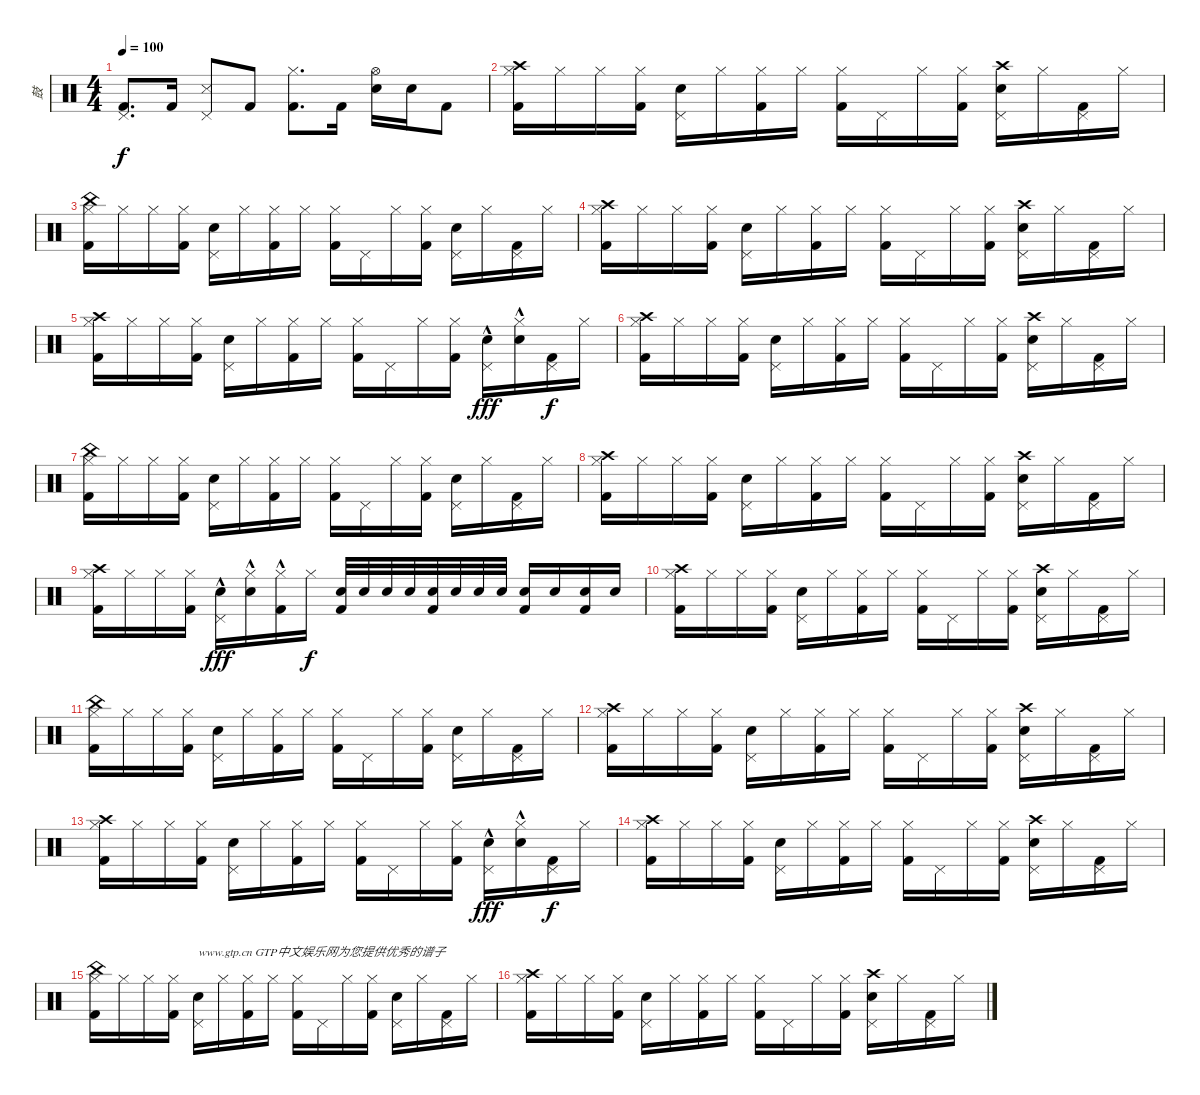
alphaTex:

\track ("鼓" "鼓") {instrument percussion}
\staff {score}
\articulation defaults
\ts (4 4)
\tempo 100
\clef neutral
\ks c
("Pedal Hi-Hat (hit)" "Kick (hit) 2").8{d dy f} "Kick (hit) 2".16 ("Pedal Hi-Hat (hit)" "Metronome (hit)").8 "Kick (hit) 2".8 ("Hi-Hat (closed)" "Kick (hit) 2").8{d} "Kick (hit) 2".16 ("Hi-Hat (open)" "Electric Snare (hit)").16 "Snare (hit) 2".16 "Kick (hit) 2".8 |
("Crash high (hit)" "Hi-Hat (closed)" "Kick (hit) 2").16 "Hi-Hat (closed)".16 "Hi-Hat (closed)".16 ("Hi-Hat (closed)" "Kick (hit) 2").16 ("Pedal Hi-Hat (hit)" "Electric Snare (hit)").16 "Hi-Hat (closed)".16 ("Hi-Hat (closed)" "Kick (hit) 2").16 "Hi-Hat (closed)".16 ("Hi-Hat (closed)" "Kick (hit) 2").16 "Pedal Hi-Hat (hit)".16 "Hi-Hat (closed)".16 ("Hi-Hat (closed)" "Kick (hit) 2").16 ("Crash high (hit)" "Pedal Hi-Hat (hit)" "Electric Snare (hit)").16 "Hi-Hat (closed)".16 ("Pedal Hi-Hat (hit)" "Kick (hit) 2").16 "Hi-Hat (closed)".16 |
("China (hit)" "Hi-Hat (closed)" "Kick (hit) 2").16 "Hi-Hat (closed)".16 "Hi-Hat (closed)".16 ("Hi-Hat (closed)" "Kick (hit) 2").16 ("Pedal Hi-Hat (hit)" "Electric Snare (hit)").16 "Hi-Hat (closed)".16 ("Hi-Hat (closed)" "Kick (hit) 2").16 "Hi-Hat (closed)".16 ("Hi-Hat (closed)" "Kick (hit) 2").16 "Pedal Hi-Hat (hit)".16 "Hi-Hat (closed)".16 ("Hi-Hat (closed)" "Kick (hit) 2").16 ("Pedal Hi-Hat (hit)" "Electric Snare (hit)").16 "Hi-Hat (closed)".16 ("Pedal Hi-Hat (hit)" "Kick (hit) 2").16 "Hi-Hat (closed)".16 |
("Crash high (hit)" "Hi-Hat (closed)" "Kick (hit) 2").16 "Hi-Hat (closed)".16 "Hi-Hat (closed)".16 ("Hi-Hat (closed)" "Kick (hit) 2").16 ("Pedal Hi-Hat (hit)" "Electric Snare (hit)").16 "Hi-Hat (closed)".16 ("Hi-Hat (closed)" "Kick (hit) 2").16 "Hi-Hat (closed)".16 ("Hi-Hat (closed)" "Kick (hit) 2").16 "Pedal Hi-Hat (hit)".16 "Hi-Hat (closed)".16 ("Hi-Hat (closed)" "Kick (hit) 2").16 ("Crash high (hit)" "Pedal Hi-Hat (hit)" "Electric Snare (hit)").16 "Hi-Hat (closed)".16 ("Pedal Hi-Hat (hit)" "Kick (hit) 2").16 "Hi-Hat (closed)".16 |
("Crash high (hit)" "Hi-Hat (closed)" "Kick (hit) 2").16 "Hi-Hat (closed)".16 "Hi-Hat (closed)".16 ("Hi-Hat (closed)" "Kick (hit) 2").16 ("Pedal Hi-Hat (hit)" "Electric Snare (hit)").16 "Hi-Hat (closed)".16 ("Hi-Hat (closed)" "Kick (hit) 2").16 "Hi-Hat (closed)".16 ("Hi-Hat (closed)" "Kick (hit) 2").16 "Pedal Hi-Hat (hit)".16 "Hi-Hat (closed)".16 ("Hi-Hat (closed)" "Kick (hit) 2").16 ("Pedal Hi-Hat (hit)" "Electric Snare (hit)"{hac}).16{dy fff} ("Hi-Hat (closed)" "Electric Snare (hit)"{hac}).16 ("Pedal Hi-Hat (hit)" "Kick (hit) 2").16{dy f} "Hi-Hat (closed)".16 |
("Crash high (hit)" "Hi-Hat (closed)" "Kick (hit) 2").16 "Hi-Hat (closed)".16 "Hi-Hat (closed)".16 ("Hi-Hat (closed)" "Kick (hit) 2").16 ("Pedal Hi-Hat (hit)" "Electric Snare (hit)").16 "Hi-Hat (closed)".16 ("Hi-Hat (closed)" "Kick (hit) 2").16 "Hi-Hat (closed)".16 ("Hi-Hat (closed)" "Kick (hit) 2").16 "Pedal Hi-Hat (hit)".16 "Hi-Hat (closed)".16 ("Hi-Hat (closed)" "Kick (hit) 2").16 ("Crash high (hit)" "Pedal Hi-Hat (hit)" "Electric Snare (hit)").16 "Hi-Hat (closed)".16 ("Pedal Hi-Hat (hit)" "Kick (hit) 2").16 "Hi-Hat (closed)".16 |
("China (hit)" "Hi-Hat (closed)" "Kick (hit) 2").16 "Hi-Hat (closed)".16 "Hi-Hat (closed)".16 ("Hi-Hat (closed)" "Kick (hit) 2").16 ("Pedal Hi-Hat (hit)" "Electric Snare (hit)").16 "Hi-Hat (closed)".16 ("Hi-Hat (closed)" "Kick (hit) 2").16 "Hi-Hat (closed)".16 ("Hi-Hat (closed)" "Kick (hit) 2").16 "Pedal Hi-Hat (hit)".16 "Hi-Hat (closed)".16 ("Hi-Hat (closed)" "Kick (hit) 2").16 ("Pedal Hi-Hat (hit)" "Electric Snare (hit)").16 "Hi-Hat (closed)".16 ("Pedal Hi-Hat (hit)" "Kick (hit) 2").16 "Hi-Hat (closed)".16 |
("Crash high (hit)" "Hi-Hat (closed)" "Kick (hit) 2").16 "Hi-Hat (closed)".16 "Hi-Hat (closed)".16 ("Hi-Hat (closed)" "Kick (hit) 2").16 ("Pedal Hi-Hat (hit)" "Electric Snare (hit)").16 "Hi-Hat (closed)".16 ("Hi-Hat (closed)" "Kick (hit) 2").16 "Hi-Hat (closed)".16 ("Hi-Hat (closed)" "Kick (hit) 2").16 "Pedal Hi-Hat (hit)".16 "Hi-Hat (closed)".16 ("Hi-Hat (closed)" "Kick (hit) 2").16 ("Crash high (hit)" "Pedal Hi-Hat (hit)" "Electric Snare (hit)").16 "Hi-Hat (closed)".16 ("Pedal Hi-Hat (hit)" "Kick (hit) 2").16 "Hi-Hat (closed)".16 |
("Crash high (hit)" "Hi-Hat (closed)" "Kick (hit) 2").16 "Hi-Hat (closed)".16 "Hi-Hat (closed)".16 ("Hi-Hat (closed)" "Kick (hit) 2").16 ("Pedal Hi-Hat (hit)" "Electric Snare (hit)"{hac}).16{dy fff} ("Hi-Hat (closed)" "Electric Snare (hit)"{hac}).16 ("Hi-Hat (closed)" "Kick (hit) 2"{hac}).16 "Hi-Hat (closed)".16{dy f} ("Electric Snare (hit)" "Kick (hit) 2").32 "Electric Snare (hit)".32 "Electric Snare (hit)".32 "Electric Snare (hit)".32 ("Electric Snare (hit)" "Kick (hit) 2").32 "Electric Snare (hit)".32 "Snare (hit) 2".32 "Snare (hit) 2".32 ("Snare (hit) 2" "Kick (hit) 2").16 "Snare (hit) 2".16 ("Snare (hit) 2" "Kick (hit) 2").16 "Snare (hit) 2".16 |
("Crash high (hit)" "Hi-Hat (closed)" "Kick (hit) 2").16 "Hi-Hat (closed)".16 "Hi-Hat (closed)".16 ("Hi-Hat (closed)" "Kick (hit) 2").16 ("Pedal Hi-Hat (hit)" "Electric Snare (hit)").16 "Hi-Hat (closed)".16 ("Hi-Hat (closed)" "Kick (hit) 2").16 "Hi-Hat (closed)".16 ("Hi-Hat (closed)" "Kick (hit) 2").16 "Pedal Hi-Hat (hit)".16 "Hi-Hat (closed)".16 ("Hi-Hat (closed)" "Kick (hit) 2").16 ("Crash high (hit)" "Pedal Hi-Hat (hit)" "Electric Snare (hit)").16 "Hi-Hat (closed)".16 ("Pedal Hi-Hat (hit)" "Kick (hit) 2").16 "Hi-Hat (closed)".16 |
("China (hit)" "Hi-Hat (closed)" "Kick (hit) 2").16 "Hi-Hat (closed)".16 "Hi-Hat (closed)".16 ("Hi-Hat (closed)" "Kick (hit) 2").16 ("Pedal Hi-Hat (hit)" "Electric Snare (hit)").16 "Hi-Hat (closed)".16 ("Hi-Hat (closed)" "Kick (hit) 2").16 "Hi-Hat (closed)".16 ("Hi-Hat (closed)" "Kick (hit) 2").16 "Pedal Hi-Hat (hit)".16 "Hi-Hat (closed)".16 ("Hi-Hat (closed)" "Kick (hit) 2").16 ("Pedal Hi-Hat (hit)" "Electric Snare (hit)").16 "Hi-Hat (closed)".16 ("Pedal Hi-Hat (hit)" "Kick (hit) 2").16 "Hi-Hat (closed)".16 |
("Crash high (hit)" "Hi-Hat (closed)" "Kick (hit) 2").16 "Hi-Hat (closed)".16 "Hi-Hat (closed)".16 ("Hi-Hat (closed)" "Kick (hit) 2").16 ("Pedal Hi-Hat (hit)" "Electric Snare (hit)").16 "Hi-Hat (closed)".16 ("Hi-Hat (closed)" "Kick (hit) 2").16 "Hi-Hat (closed)".16 ("Hi-Hat (closed)" "Kick (hit) 2").16 "Pedal Hi-Hat (hit)".16 "Hi-Hat (closed)".16 ("Hi-Hat (closed)" "Kick (hit) 2").16 ("Crash high (hit)" "Pedal Hi-Hat (hit)" "Electric Snare (hit)").16 "Hi-Hat (closed)".16 ("Pedal Hi-Hat (hit)" "Kick (hit) 2").16 "Hi-Hat (closed)".16 |
("Crash high (hit)" "Hi-Hat (closed)" "Kick (hit) 2").16 "Hi-Hat (closed)".16 "Hi-Hat (closed)".16 ("Hi-Hat (closed)" "Kick (hit) 2").16 ("Pedal Hi-Hat (hit)" "Electric Snare (hit)").16 "Hi-Hat (closed)".16 ("Hi-Hat (closed)" "Kick (hit) 2").16 "Hi-Hat (closed)".16 ("Hi-Hat (closed)" "Kick (hit) 2").16 "Pedal Hi-Hat (hit)".16 "Hi-Hat (closed)".16 ("Hi-Hat (closed)" "Kick (hit) 2").16 ("Pedal Hi-Hat (hit)" "Electric Snare (hit)"{hac}).16{dy fff} ("Hi-Hat (closed)" "Electric Snare (hit)"{hac}).16 ("Pedal Hi-Hat (hit)" "Kick (hit) 2").16{dy f} "Hi-Hat (closed)".16 |
("Crash high (hit)" "Hi-Hat (closed)" "Kick (hit) 2").16 "Hi-Hat (closed)".16 "Hi-Hat (closed)".16 ("Hi-Hat (closed)" "Kick (hit) 2").16 ("Pedal Hi-Hat (hit)" "Electric Snare (hit)").16 "Hi-Hat (closed)".16 ("Hi-Hat (closed)" "Kick (hit) 2").16 "Hi-Hat (closed)".16 ("Hi-Hat (closed)" "Kick (hit) 2").16 "Pedal Hi-Hat (hit)".16 "Hi-Hat (closed)".16 ("Hi-Hat (closed)" "Kick (hit) 2").16 ("Crash high (hit)" "Pedal Hi-Hat (hit)" "Electric Snare (hit)").16 "Hi-Hat (closed)".16 ("Pedal Hi-Hat (hit)" "Kick (hit) 2").16 "Hi-Hat (closed)".16 |
("China (hit)" "Hi-Hat (closed)" "Kick (hit) 2").16 "Hi-Hat (closed)".16 "Hi-Hat (closed)".16 ("Hi-Hat (closed)" "Kick (hit) 2").16 ("Pedal Hi-Hat (hit)" "Electric Snare (hit)").16{txt "www.gtp.cn GTP中文娱乐网为您提供优秀的谱子"} "Hi-Hat (closed)".16 ("Hi-Hat (closed)" "Kick (hit) 2").16 "Hi-Hat (closed)".16 ("Hi-Hat (closed)" "Kick (hit) 2").16 "Pedal Hi-Hat (hit)".16 "Hi-Hat (closed)".16 ("Hi-Hat (closed)" "Kick (hit) 2").16 ("Pedal Hi-Hat (hit)" "Electric Snare (hit)").16 "Hi-Hat (closed)".16 ("Pedal Hi-Hat (hit)" "Kick (hit) 2").16 "Hi-Hat (closed)".16 |
("Crash high (hit)" "Hi-Hat (closed)" "Kick (hit) 2").16 "Hi-Hat (closed)".16 "Hi-Hat (closed)".16 ("Hi-Hat (closed)" "Kick (hit) 2").16 ("Pedal Hi-Hat (hit)" "Electric Snare (hit)").16 "Hi-Hat (closed)".16 ("Hi-Hat (closed)" "Kick (hit) 2").16 "Hi-Hat (closed)".16 ("Hi-Hat (closed)" "Kick (hit) 2").16 "Pedal Hi-Hat (hit)".16 "Hi-Hat (closed)".16 ("Hi-Hat (closed)" "Kick (hit) 2").16 ("Crash high (hit)" "Pedal Hi-Hat (hit)" "Electric Snare (hit)").16 "Hi-Hat (closed)".16 ("Pedal Hi-Hat (hit)" "Kick (hit) 2").16 "Hi-Hat (closed)".16
